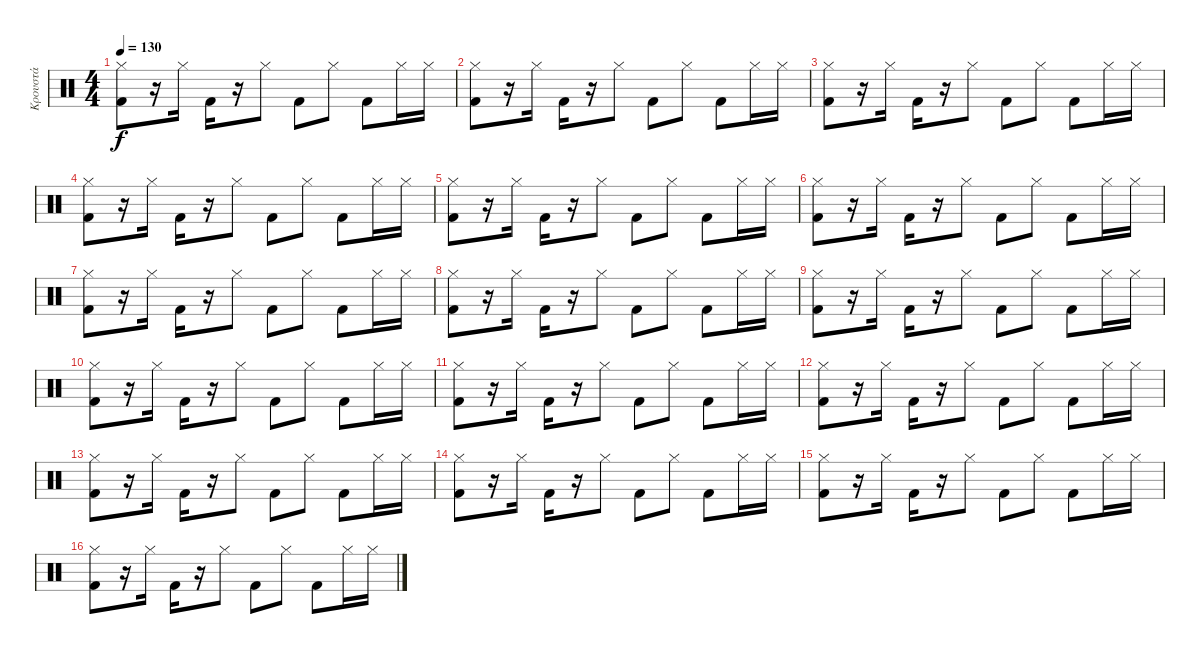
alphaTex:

\track ("Κρουστά" "Κρουστά") {instrument percussion}
\staff {score}
\articulation defaults
\ts (4 4)
\tempo 130
\clef neutral
\ks c
("Kick (hit) 2" "Hi-Hat (closed)").8{dy f} r.16 "Hi-Hat (closed)".16 "Kick (hit) 2".16 r.16 "Hi-Hat (closed)".8 "Kick (hit) 2".8 "Hi-Hat (closed)".8 "Kick (hit) 2".8 "Hi-Hat (closed)".16 "Hi-Hat (closed)".16 |
("Kick (hit) 2" "Hi-Hat (closed)").8 r.16 "Hi-Hat (closed)".16 "Kick (hit) 2".16 r.16 "Hi-Hat (closed)".8 "Kick (hit) 2".8 "Hi-Hat (closed)".8 "Kick (hit) 2".8 "Hi-Hat (closed)".16 "Hi-Hat (closed)".16 |
("Kick (hit) 2" "Hi-Hat (closed)").8 r.16 "Hi-Hat (closed)".16 "Kick (hit) 2".16 r.16 "Hi-Hat (closed)".8 "Kick (hit) 2".8 "Hi-Hat (closed)".8 "Kick (hit) 2".8 "Hi-Hat (closed)".16 "Hi-Hat (closed)".16 |
("Kick (hit) 2" "Hi-Hat (closed)").8 r.16 "Hi-Hat (closed)".16 "Kick (hit) 2".16 r.16 "Hi-Hat (closed)".8 "Kick (hit) 2".8 "Hi-Hat (closed)".8 "Kick (hit) 2".8 "Hi-Hat (closed)".16 "Hi-Hat (closed)".16 |
("Kick (hit) 2" "Hi-Hat (closed)").8 r.16 "Hi-Hat (closed)".16 "Kick (hit) 2".16 r.16 "Hi-Hat (closed)".8 "Kick (hit) 2".8 "Hi-Hat (closed)".8 "Kick (hit) 2".8 "Hi-Hat (closed)".16 "Hi-Hat (closed)".16 |
("Kick (hit) 2" "Hi-Hat (closed)").8 r.16 "Hi-Hat (closed)".16 "Kick (hit) 2".16 r.16 "Hi-Hat (closed)".8 "Kick (hit) 2".8 "Hi-Hat (closed)".8 "Kick (hit) 2".8 "Hi-Hat (closed)".16 "Hi-Hat (closed)".16 |
("Kick (hit) 2" "Hi-Hat (closed)").8 r.16 "Hi-Hat (closed)".16 "Kick (hit) 2".16 r.16 "Hi-Hat (closed)".8 "Kick (hit) 2".8 "Hi-Hat (closed)".8 "Kick (hit) 2".8 "Hi-Hat (closed)".16 "Hi-Hat (closed)".16 |
("Kick (hit) 2" "Hi-Hat (closed)").8 r.16 "Hi-Hat (closed)".16 "Kick (hit) 2".16 r.16 "Hi-Hat (closed)".8 "Kick (hit) 2".8 "Hi-Hat (closed)".8 "Kick (hit) 2".8 "Hi-Hat (closed)".16 "Hi-Hat (closed)".16 |
("Kick (hit) 2" "Hi-Hat (closed)").8 r.16 "Hi-Hat (closed)".16 "Kick (hit) 2".16 r.16 "Hi-Hat (closed)".8 "Kick (hit) 2".8 "Hi-Hat (closed)".8 "Kick (hit) 2".8 "Hi-Hat (closed)".16 "Hi-Hat (closed)".16 |
("Kick (hit) 2" "Hi-Hat (closed)").8 r.16 "Hi-Hat (closed)".16 "Kick (hit) 2".16 r.16 "Hi-Hat (closed)".8 "Kick (hit) 2".8 "Hi-Hat (closed)".8 "Kick (hit) 2".8 "Hi-Hat (closed)".16 "Hi-Hat (closed)".16 |
("Kick (hit) 2" "Hi-Hat (closed)").8 r.16 "Hi-Hat (closed)".16 "Kick (hit) 2".16 r.16 "Hi-Hat (closed)".8 "Kick (hit) 2".8 "Hi-Hat (closed)".8 "Kick (hit) 2".8 "Hi-Hat (closed)".16 "Hi-Hat (closed)".16 |
("Kick (hit) 2" "Hi-Hat (closed)").8 r.16 "Hi-Hat (closed)".16 "Kick (hit) 2".16 r.16 "Hi-Hat (closed)".8 "Kick (hit) 2".8 "Hi-Hat (closed)".8 "Kick (hit) 2".8 "Hi-Hat (closed)".16 "Hi-Hat (closed)".16 |
("Kick (hit) 2" "Hi-Hat (closed)").8 r.16 "Hi-Hat (closed)".16 "Kick (hit) 2".16 r.16 "Hi-Hat (closed)".8 "Kick (hit) 2".8 "Hi-Hat (closed)".8 "Kick (hit) 2".8 "Hi-Hat (closed)".16 "Hi-Hat (closed)".16 |
("Kick (hit) 2" "Hi-Hat (closed)").8 r.16 "Hi-Hat (closed)".16 "Kick (hit) 2".16 r.16 "Hi-Hat (closed)".8 "Kick (hit) 2".8 "Hi-Hat (closed)".8 "Kick (hit) 2".8 "Hi-Hat (closed)".16 "Hi-Hat (closed)".16 |
("Kick (hit) 2" "Hi-Hat (closed)").8 r.16 "Hi-Hat (closed)".16 "Kick (hit) 2".16 r.16 "Hi-Hat (closed)".8 "Kick (hit) 2".8 "Hi-Hat (closed)".8 "Kick (hit) 2".8 "Hi-Hat (closed)".16 "Hi-Hat (closed)".16 |
("Kick (hit) 2" "Hi-Hat (closed)").8 r.16 "Hi-Hat (closed)".16 "Kick (hit) 2".16 r.16 "Hi-Hat (closed)".8 "Kick (hit) 2".8 "Hi-Hat (closed)".8 "Kick (hit) 2".8 "Hi-Hat (closed)".16 "Hi-Hat (closed)".16
